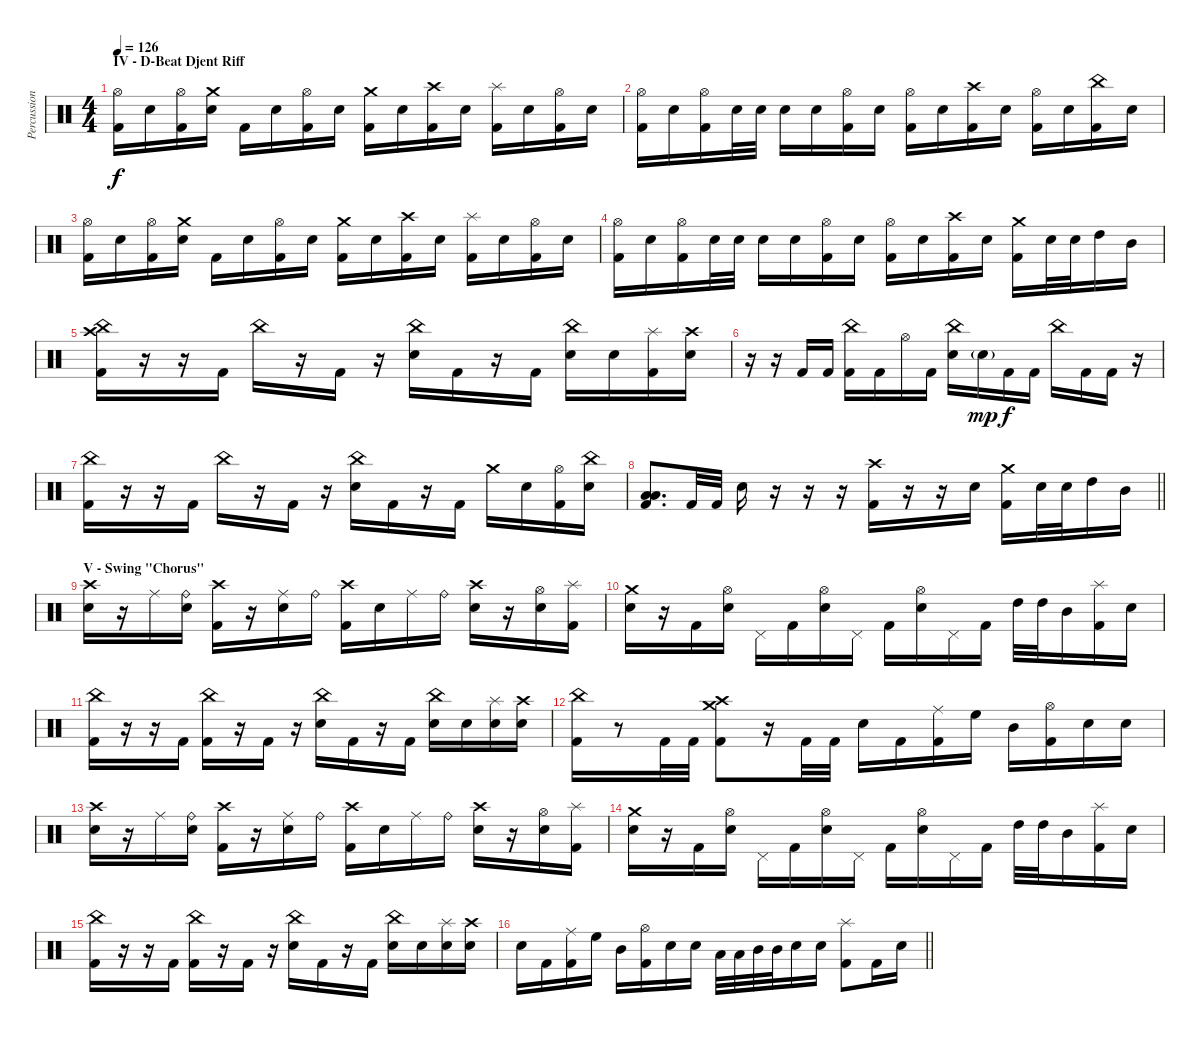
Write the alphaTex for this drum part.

\track ("Percussion" "Percussion") {instrument percussion}
\staff {score}
\articulation defaults
\ts (4 4)
\section ("" "IV - D-Beat Djent Riff")
\tempo 126
\clef neutral
\ks c
("Hi-Hat (open)" "Kick (hit) 2").16{dy f} "Snare (hit) 2".16 ("Hi-Hat (open)" "Kick (hit) 2").16 ("Crash medium (hit)" "Snare (hit) 2").16 "Kick (hit) 2".16 "Snare (hit) 2".16 ("Hi-Hat (open)" "Kick (hit) 2").16 "Snare (hit) 2".16 ("Crash medium (hit)" "Kick (hit) 2").16 "Snare (hit) 2".16 ("Crash high (hit)" "Kick (hit) 2").16 "Snare (hit) 2".16 ("Splash (hit)" "Kick (hit) 2").16 "Snare (hit) 2".16 ("Hi-Hat (open)" "Kick (hit) 2").16 "Snare (hit) 2".16 |
("Hi-Hat (open)" "Kick (hit) 2").16 "Snare (hit) 2".16 ("Hi-Hat (open)" "Kick (hit) 2").16 "Snare (hit) 2".32 "Snare (hit) 2".32 "Snare (hit) 2".16 "Snare (hit) 2".16 ("Hi-Hat (open)" "Kick (hit) 2").16 "Snare (hit) 2".16 ("Hi-Hat (open)" "Kick (hit) 2").16 "Snare (hit) 2".16 ("Crash high (hit)" "Kick (hit) 2").16 "Snare (hit) 2".16 ("Hi-Hat (open)" "Kick (hit) 2").16 "Snare (hit) 2".16 ("China (hit)" "Kick (hit) 2").16 "Snare (hit) 2".16 |
("Hi-Hat (open)" "Kick (hit) 2").16 "Snare (hit) 2".16 ("Hi-Hat (open)" "Kick (hit) 2").16 ("Crash medium (hit)" "Snare (hit) 2").16 "Kick (hit) 2".16 "Snare (hit) 2".16 ("Hi-Hat (open)" "Kick (hit) 2").16 "Snare (hit) 2".16 ("Crash medium (hit)" "Kick (hit) 2").16 "Snare (hit) 2".16 ("Crash high (hit)" "Kick (hit) 2").16 "Snare (hit) 2".16 ("Splash (hit)" "Kick (hit) 2").16 "Snare (hit) 2".16 ("Hi-Hat (open)" "Kick (hit) 2").16 "Snare (hit) 2".16 |
("Hi-Hat (open)" "Kick (hit) 2").16 "Snare (hit) 2".16 ("Hi-Hat (open)" "Kick (hit) 2").16 "Snare (hit) 2".32 "Snare (hit) 2".32 "Snare (hit) 2".16 "Snare (hit) 2".16 ("Hi-Hat (open)" "Kick (hit) 2").16 "Snare (hit) 2".16 ("Hi-Hat (open)" "Kick (hit) 2").16 "Snare (hit) 2".16 ("Crash high (hit)" "Kick (hit) 2").16 "Snare (hit) 2".16 ("Crash medium (hit)" "Kick (hit) 2").16 "Snare (hit) 2".32 "Snare (hit) 2".32 "High Tom (hit)".16 "Mid Tom (hit)".16 |
("China (hit)" "Crash high (hit)" "Kick (hit) 2").16 r.16 r.16 "Kick (hit) 2".16 "China (hit)".16 r.16 "Kick (hit) 2".16 r.16 ("China (hit)" "Snare (hit) 2").16 "Kick (hit) 2".16 r.16 "Kick (hit) 2".16 ("China (hit)" "Snare (hit) 2").16 "Snare (hit) 2".16 ("Splash (hit)" "Kick (hit) 2").16 ("Crash high (hit)" "Snare (hit) 2").16 |
r.16 r.16 "Kick (hit) 2".16 "Kick (hit) 2".16 ("China (hit)" "Kick (hit) 2").16 "Kick (hit) 2".16 "Hi-Hat (open)".16 "Kick (hit) 2".16 ("China (hit)" "Snare (hit) 2").16 "Snare (hit) 2"{g}.16{dy mp} "Kick (hit) 2".16{dy f} "Kick (hit) 2".16 "China (hit)".16 "Kick (hit) 2".16 "Kick (hit) 2".16 r.16 |
("China (hit)" "Kick (hit) 2").16 r.16 r.16 "Kick (hit) 2".16 "China (hit)".16 r.16 "Kick (hit) 2".16 r.16 ("China (hit)" "Snare (hit) 2").16 "Kick (hit) 2".16 r.16 "Kick (hit) 2".16 "Crash medium (hit)".16 "Snare (hit) 2".16 ("Hi-Hat (open)" "Kick (hit) 2").16 ("China (hit)" "Snare (hit) 2").16 |
\barLineRight lightlight
("Low Tom (hit)" "Low Floor Tom (hit)" "Kick (hit) 2").8{d} "Kick (hit) 2".32 "Kick (hit) 2".32 "Snare (hit) 2".16 r.16 r.16 r.16 ("Crash high (hit)" "Kick (hit) 2").16 r.16 r.16 "Snare (hit) 2".16 ("Crash medium (hit)" "Kick (hit) 2").16 "Snare (hit) 2".32 "Snare (hit) 2".32 "High Tom (hit)".16 "Mid Tom (hit)".16 |
\section ("" "V - Swing \"Chorus\"")
("Crash high (hit)" "Snare (hit) 2").16 r.16 "Ride (middle)".16 ("Ride (bell)" "Snare (hit) 2").16 ("Crash high (hit)" "Kick (hit) 2").16 r.16 ("Ride (middle)" "Snare (hit) 2").16 "Ride (bell)".16 ("Crash high (hit)" "Kick (hit) 2").16 "Snare (hit) 2".16 "Ride (middle)".16 "Ride (bell)".16 ("Crash high (hit)" "Snare (hit) 2").16 r.16 ("Hi-Hat (open)" "Snare (hit) 2").16 ("Splash (hit)" "Kick (hit) 2").16 |
("Crash medium (hit)" "Snare (hit) 2").16 r.16 "Kick (hit) 2".16 ("Hi-Hat (open)" "Snare (hit) 2").16 "Pedal Hi-Hat (hit)".16 "Kick (hit) 2".16 ("Hi-Hat (open)" "Snare (hit) 2").16 "Pedal Hi-Hat (hit)".16 "Kick (hit) 2".16 ("Hi-Hat (open)" "Snare (hit) 2").16 "Pedal Hi-Hat (hit)".16 "Kick (hit) 2".16 "High Tom (hit)".32 "High Tom (hit)".32 "Mid Tom (hit)".16 ("Splash (hit)" "Kick (hit) 2").16 "Snare (hit) 2".16 |
("China (hit)" "Kick (hit) 2").16 r.16 r.16 "Kick (hit) 2".16 ("China (hit)" "Kick (hit) 2").16 r.16 "Kick (hit) 2".16 r.16 ("China (hit)" "Snare (hit) 2").16 "Kick (hit) 2".16 r.16 "Kick (hit) 2".16 ("China (hit)" "Snare (hit) 2").16 "Snare (hit) 2".16 ("Splash (hit)" "Snare (hit) 2").16 ("Crash high (hit)" "Snare (hit) 2").16 |
("China (hit)" "Kick (hit) 2").16 r.8 "Kick (hit) 2".32 "Kick (hit) 2".32 ("Crash high (hit)" "Crash medium (hit)" "Kick (hit) 2").8 r.16 "Kick (hit) 2".32 "Kick (hit) 2".32 "Snare (hit) 2".16 "Kick (hit) 2".16 ("Ride (middle)" "Kick (hit) 2").16 "High Floor Tom (hit)".16 "Mid Tom (hit)".16 ("Hi-Hat (open)" "Kick (hit) 2").16 "Snare (hit) 2".16 "Snare (hit) 2".16 |
("Crash high (hit)" "Snare (hit) 2").16 r.16 "Ride (middle)".16 ("Ride (bell)" "Snare (hit) 2").16 ("Crash high (hit)" "Kick (hit) 2").16 r.16 ("Ride (middle)" "Snare (hit) 2").16 "Ride (bell)".16 ("Crash high (hit)" "Kick (hit) 2").16 "Snare (hit) 2".16 "Ride (middle)".16 "Ride (bell)".16 ("Crash high (hit)" "Snare (hit) 2").16 r.16 ("Hi-Hat (open)" "Snare (hit) 2").16 ("Splash (hit)" "Kick (hit) 2").16 |
("Crash medium (hit)" "Snare (hit) 2").16 r.16 "Kick (hit) 2".16 ("Hi-Hat (open)" "Snare (hit) 2").16 "Pedal Hi-Hat (hit)".16 "Kick (hit) 2".16 ("Hi-Hat (open)" "Snare (hit) 2").16 "Pedal Hi-Hat (hit)".16 "Kick (hit) 2".16 ("Hi-Hat (open)" "Snare (hit) 2").16 "Pedal Hi-Hat (hit)".16 "Kick (hit) 2".16 "High Tom (hit)".32 "High Tom (hit)".32 "Mid Tom (hit)".16 ("Splash (hit)" "Kick (hit) 2").16 "Snare (hit) 2".16 |
("China (hit)" "Kick (hit) 2").16 r.16 r.16 "Kick (hit) 2".16 ("China (hit)" "Kick (hit) 2").16 r.16 "Kick (hit) 2".16 r.16 ("China (hit)" "Snare (hit) 2").16 "Kick (hit) 2".16 r.16 "Kick (hit) 2".16 ("China (hit)" "Snare (hit) 2").16 "Snare (hit) 2".16 ("Splash (hit)" "Snare (hit) 2").16 ("Crash high (hit)" "Snare (hit) 2").16 |
\barLineRight lightlight "Snare (hit) 2".16 "Kick (hit) 2".16
("Ride (middle)" "Kick (hit) 2").16 "High Floor Tom (hit)".16 "Mid Tom (hit)".16 ("Hi-Hat (open)" "Kick (hit) 2").16 "Snare (hit) 2".16 "Snare (hit) 2".16 "Low Tom (hit)".32 "Low Tom (hit)".32 "Mid Tom (hit)".32 "Mid Tom (hit)".32 "Snare (hit) 2".16 "Electric Snare (hit)".16 ("Splash (hit)" "Kick (hit) 2").8 "Kick (hit) 2".16 "Snare (hit) 2".16
